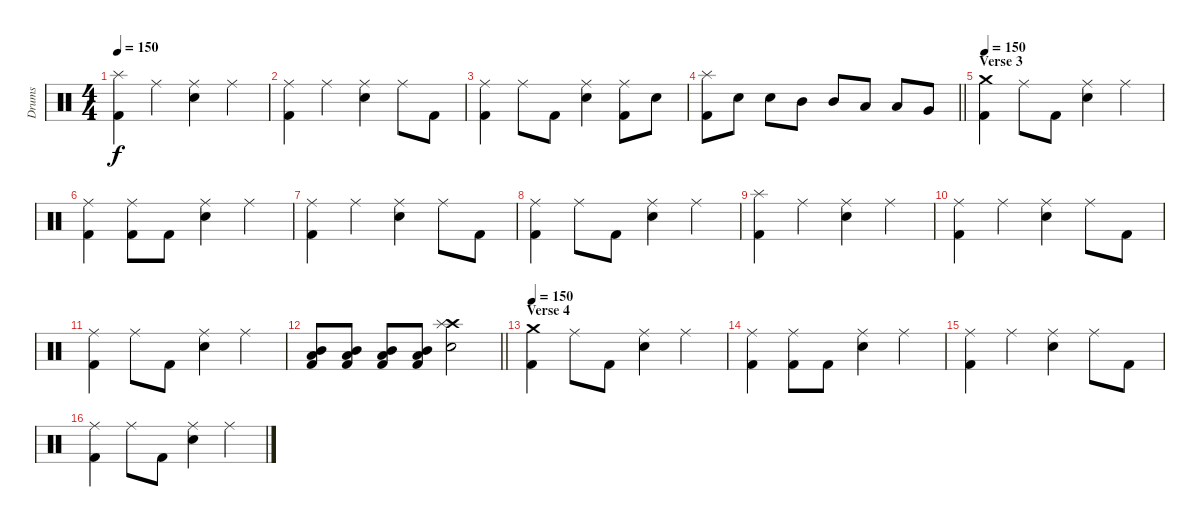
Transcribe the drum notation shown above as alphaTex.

\track ("Drums" "Drums") {instrument percussion}
\staff {score}
\articulation defaults
\ts (4 4)
\tempo 150
\clef neutral
\ks c
("Splash (hit)" "Kick (hit) 2").4{dy f} "Ride (middle)".4 ("Ride (middle)" "Electric Snare (hit)").4 "Ride (middle)".4 |
("Ride (middle)" "Kick (hit) 2").4 "Ride (middle)".4 ("Ride (middle)" "Electric Snare (hit)").4 "Ride (middle)".8 "Kick (hit) 2".8 |
("Ride (middle)" "Kick (hit) 2").4 "Ride (middle)".8 "Kick (hit) 2".8 ("Ride (middle)" "Electric Snare (hit)").4 ("Ride (middle)" "Kick (hit) 2").8 "Electric Snare (hit)".8 |
\barLineRight lightlight
("Splash (hit)" "Kick (hit) 2").8 "Electric Snare (hit)".8 "Electric Snare (hit)".8 "Mid Tom (hit)".8 "Mid Tom (hit)".8 "Low Tom (hit)".8 "Low Tom (hit)".8 "Very Low Tom (hit)".8 |
\section ("" "Verse 3")
\tempo 150
("Crash medium (hit)" "Kick (hit) 2").4 "Ride (middle)".8 "Kick (hit) 2".8 ("Ride (middle)" "Electric Snare (hit)").4 "Ride (middle)".4 |
("Ride (middle)" "Kick (hit) 2").4 ("Ride (middle)" "Kick (hit) 2").8 "Kick (hit) 2".8 ("Ride (middle)" "Electric Snare (hit)").4 "Ride (middle)".4 |
("Ride (middle)" "Kick (hit) 2").4 "Ride (middle)".4 ("Ride (middle)" "Electric Snare (hit)").4 "Ride (middle)".8 "Kick (hit) 2".8 |
("Ride (middle)" "Kick (hit) 2").4 "Ride (middle)".8 "Kick (hit) 2".8 ("Ride (middle)" "Electric Snare (hit)").4 "Ride (middle)".4 |
("Splash (hit)" "Kick (hit) 2").4 "Ride (middle)".4 ("Ride (middle)" "Electric Snare (hit)").4 "Ride (middle)".4 |
("Ride (middle)" "Kick (hit) 2").4 "Ride (middle)".4 ("Ride (middle)" "Electric Snare (hit)").4 "Ride (middle)".8 "Kick (hit) 2".8 |
("Ride (middle)" "Kick (hit) 2").4 "Ride (middle)".8 "Kick (hit) 2".8 ("Ride (middle)" "Electric Snare (hit)").4 "Ride (middle)".4 |
\barLineRight lightlight
("Mid Tom (hit)" "Low Tom (hit)" "Kick (hit) 2").8 ("Mid Tom (hit)" "Low Tom (hit)" "Kick (hit) 2").8 ("Mid Tom (hit)" "Low Tom (hit)" "Kick (hit) 2").8 ("Mid Tom (hit)" "Low Tom (hit)" "Kick (hit) 2").8 ("Crash high (hit)" "Splash (hit)" "Electric Snare (hit)").2 |
\section ("" "Verse 4")
\tempo 150
("Crash medium (hit)" "Kick (hit) 2").4 "Ride (middle)".8 "Kick (hit) 2".8 ("Ride (middle)" "Electric Snare (hit)").4 "Ride (middle)".4 |
("Ride (middle)" "Kick (hit) 2").4 ("Ride (middle)" "Kick (hit) 2").8 "Kick (hit) 2".8 ("Ride (middle)" "Electric Snare (hit)").4 "Ride (middle)".4 |
("Ride (middle)" "Kick (hit) 2").4 "Ride (middle)".4 ("Ride (middle)" "Electric Snare (hit)").4 "Ride (middle)".8 "Kick (hit) 2".8 |
("Ride (middle)" "Kick (hit) 2").4 "Ride (middle)".8 "Kick (hit) 2".8 ("Ride (middle)" "Electric Snare (hit)").4 "Ride (middle)".4
